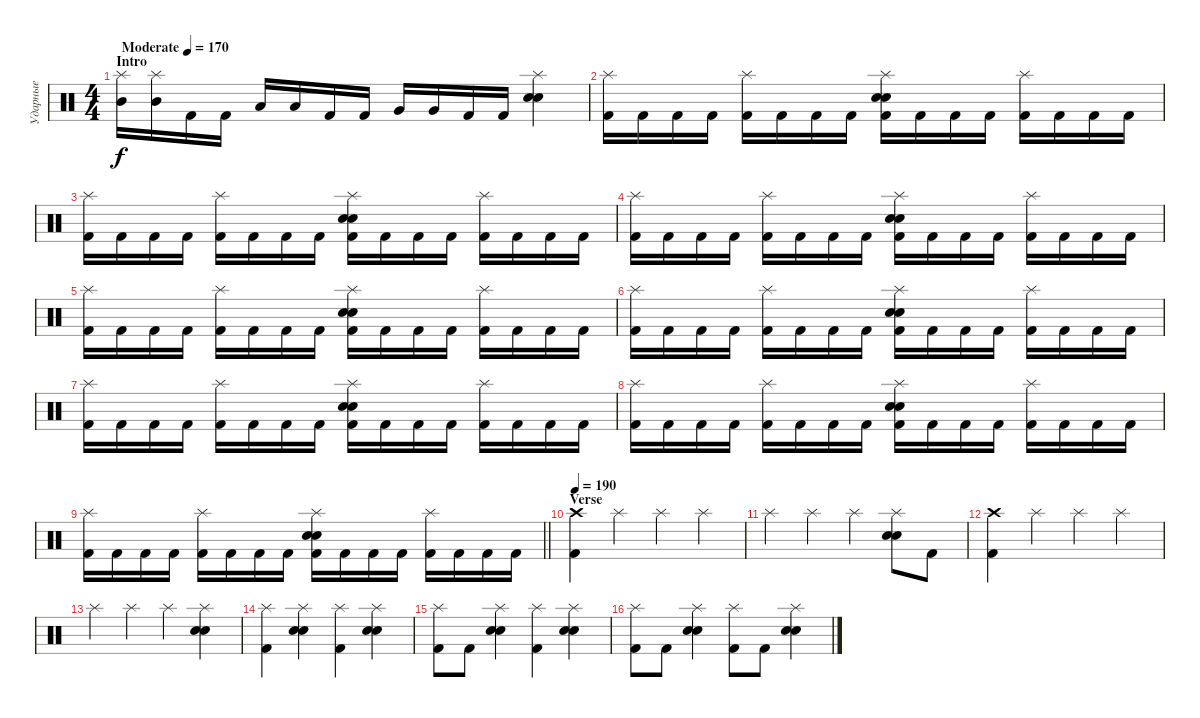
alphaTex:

\track ("Ударные" "Ударные") {instrument percussion}
\staff {score}
\articulation defaults
\ts (4 4)
\section ("" "Intro")
\tempo (170 "Moderate")
\clef neutral
\ks c
("Splash (hit)" "Mid Tom (hit)").16{dy f} ("Splash (hit)" "Mid Tom (hit)").16 "Kick (hit) 2".16 "Kick (hit) 2".16 "Low Tom (hit)".16 "Low Tom (hit)".16 "Kick (hit) 2".16 "Kick (hit) 2".16 "Very Low Tom (hit)".16 "Very Low Tom (hit)".16 "Kick (hit) 2".16 "Kick (hit) 2".16 ("Splash (hit)" "Electric Snare (hit)" "Snare (hit) 2").4 |
("Splash (hit)" "Kick (hit) 2").16 "Kick (hit) 2".16 "Kick (hit) 2".16 "Kick (hit) 2".16 ("Splash (hit)" "Kick (hit) 2").16 "Kick (hit) 2".16 "Kick (hit) 2".16 "Kick (hit) 2".16 ("Splash (hit)" "Electric Snare (hit)" "Snare (hit) 2" "Kick (hit) 2").16 "Kick (hit) 2".16 "Kick (hit) 2".16 "Kick (hit) 2".16 ("Splash (hit)" "Kick (hit) 2").16 "Kick (hit) 2".16 "Kick (hit) 2".16 "Kick (hit) 2".16 |
("Splash (hit)" "Kick (hit) 2").16 "Kick (hit) 2".16 "Kick (hit) 2".16 "Kick (hit) 2".16 ("Splash (hit)" "Kick (hit) 2").16 "Kick (hit) 2".16 "Kick (hit) 2".16 "Kick (hit) 2".16 ("Splash (hit)" "Electric Snare (hit)" "Snare (hit) 2" "Kick (hit) 2").16 "Kick (hit) 2".16 "Kick (hit) 2".16 "Kick (hit) 2".16 ("Splash (hit)" "Kick (hit) 2").16 "Kick (hit) 2".16 "Kick (hit) 2".16 "Kick (hit) 2".16 |
("Splash (hit)" "Kick (hit) 2").16 "Kick (hit) 2".16 "Kick (hit) 2".16 "Kick (hit) 2".16 ("Splash (hit)" "Kick (hit) 2").16 "Kick (hit) 2".16 "Kick (hit) 2".16 "Kick (hit) 2".16 ("Splash (hit)" "Electric Snare (hit)" "Snare (hit) 2" "Kick (hit) 2").16 "Kick (hit) 2".16 "Kick (hit) 2".16 "Kick (hit) 2".16 ("Splash (hit)" "Kick (hit) 2").16 "Kick (hit) 2".16 "Kick (hit) 2".16 "Kick (hit) 2".16 |
("Splash (hit)" "Kick (hit) 2").16 "Kick (hit) 2".16 "Kick (hit) 2".16 "Kick (hit) 2".16 ("Splash (hit)" "Kick (hit) 2").16 "Kick (hit) 2".16 "Kick (hit) 2".16 "Kick (hit) 2".16 ("Splash (hit)" "Electric Snare (hit)" "Snare (hit) 2" "Kick (hit) 2").16 "Kick (hit) 2".16 "Kick (hit) 2".16 "Kick (hit) 2".16 ("Splash (hit)" "Kick (hit) 2").16 "Kick (hit) 2".16 "Kick (hit) 2".16 "Kick (hit) 2".16 |
("Splash (hit)" "Kick (hit) 2").16 "Kick (hit) 2".16 "Kick (hit) 2".16 "Kick (hit) 2".16 ("Splash (hit)" "Kick (hit) 2").16 "Kick (hit) 2".16 "Kick (hit) 2".16 "Kick (hit) 2".16 ("Splash (hit)" "Electric Snare (hit)" "Snare (hit) 2" "Kick (hit) 2").16 "Kick (hit) 2".16 "Kick (hit) 2".16 "Kick (hit) 2".16 ("Splash (hit)" "Kick (hit) 2").16 "Kick (hit) 2".16 "Kick (hit) 2".16 "Kick (hit) 2".16 |
("Splash (hit)" "Kick (hit) 2").16 "Kick (hit) 2".16 "Kick (hit) 2".16 "Kick (hit) 2".16 ("Splash (hit)" "Kick (hit) 2").16 "Kick (hit) 2".16 "Kick (hit) 2".16 "Kick (hit) 2".16 ("Splash (hit)" "Electric Snare (hit)" "Snare (hit) 2" "Kick (hit) 2").16 "Kick (hit) 2".16 "Kick (hit) 2".16 "Kick (hit) 2".16 ("Splash (hit)" "Kick (hit) 2").16 "Kick (hit) 2".16 "Kick (hit) 2".16 "Kick (hit) 2".16 |
("Splash (hit)" "Kick (hit) 2").16 "Kick (hit) 2".16 "Kick (hit) 2".16 "Kick (hit) 2".16 ("Splash (hit)" "Kick (hit) 2").16 "Kick (hit) 2".16 "Kick (hit) 2".16 "Kick (hit) 2".16 ("Splash (hit)" "Electric Snare (hit)" "Snare (hit) 2" "Kick (hit) 2").16 "Kick (hit) 2".16 "Kick (hit) 2".16 "Kick (hit) 2".16 ("Splash (hit)" "Kick (hit) 2").16 "Kick (hit) 2".16 "Kick (hit) 2".16 "Kick (hit) 2".16 |
\barLineRight lightlight
("Splash (hit)" "Kick (hit) 2").16 "Kick (hit) 2".16 "Kick (hit) 2".16 "Kick (hit) 2".16 ("Splash (hit)" "Kick (hit) 2").16 "Kick (hit) 2".16 "Kick (hit) 2".16 "Kick (hit) 2".16 ("Splash (hit)" "Electric Snare (hit)" "Snare (hit) 2" "Kick (hit) 2").16 "Kick (hit) 2".16 "Kick (hit) 2".16 "Kick (hit) 2".16 ("Splash (hit)" "Kick (hit) 2").16 "Kick (hit) 2".16 "Kick (hit) 2".16 "Kick (hit) 2".16 |
\section ("" "Verse")
\tempo 190
("Crash high (hit)" "Kick (hit) 2").4 "Splash (hit)".4 "Splash (hit)".4 "Splash (hit)".4 |
"Splash (hit)".4 "Splash (hit)".4 "Splash (hit)".4 ("Splash (hit)" "Electric Snare (hit)" "Snare (hit) 2").8 "Kick (hit) 2".8 |
("Crash high (hit)" "Kick (hit) 2").4 "Splash (hit)".4 "Splash (hit)".4 "Splash (hit)".4 |
"Splash (hit)".4 "Splash (hit)".4 "Splash (hit)".4 ("Splash (hit)" "Electric Snare (hit)" "Snare (hit) 2").4 |
("Splash (hit)" "Kick (hit) 2").4 ("Splash (hit)" "Electric Snare (hit)" "Snare (hit) 2").4 ("Splash (hit)" "Kick (hit) 2").4 ("Splash (hit)" "Electric Snare (hit)" "Snare (hit) 2").4 |
("Splash (hit)" "Kick (hit) 2").8 "Kick (hit) 2".8 ("Splash (hit)" "Electric Snare (hit)" "Snare (hit) 2").4 ("Splash (hit)" "Kick (hit) 2").4 ("Splash (hit)" "Electric Snare (hit)" "Snare (hit) 2").4 |
("Splash (hit)" "Kick (hit) 2").8 "Kick (hit) 2".8 ("Splash (hit)" "Electric Snare (hit)" "Snare (hit) 2").4 ("Splash (hit)" "Kick (hit) 2").8 "Kick (hit) 2".8 ("Splash (hit)" "Electric Snare (hit)" "Snare (hit) 2").4
